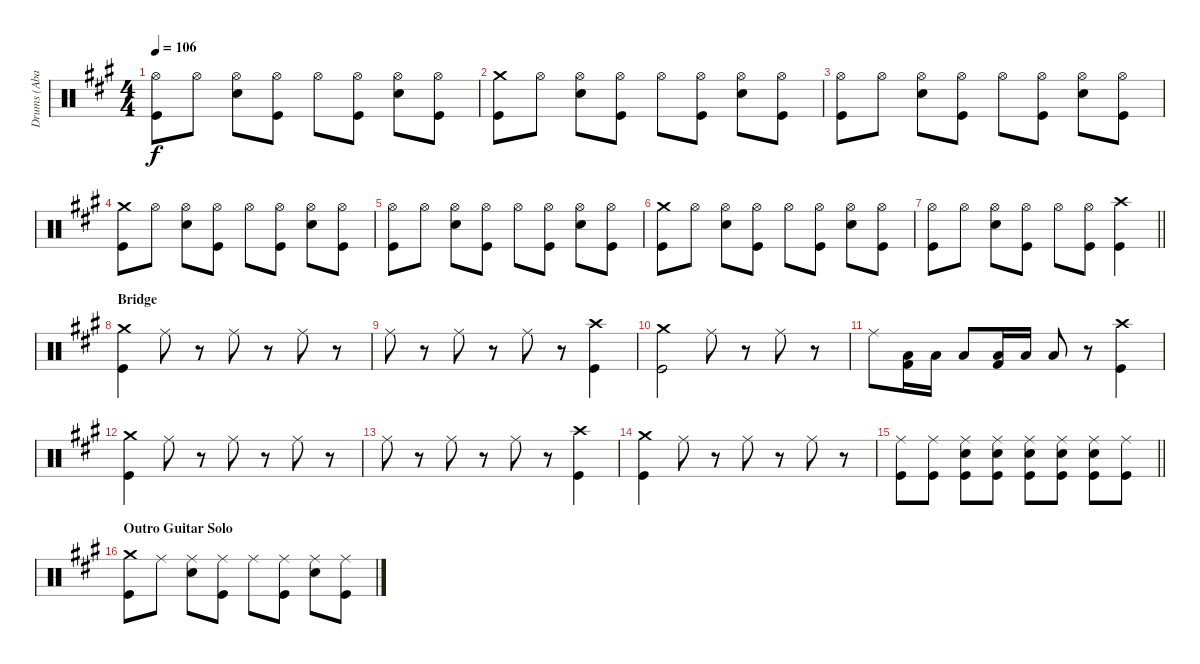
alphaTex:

\track ("Drums (Abaddon)" "Drums (Aba") {instrument percussion}
\staff {score}
\articulation defaults
\ts (4 4)
\tempo 106
\clef neutral
\ks f#minor
("Hi-Hat (open)" "Kick (hit)").8{dy f} "Hi-Hat (open)".8 ("Hi-Hat (open)" "Electric Snare (hit)").8 ("Hi-Hat (open)" "Kick (hit)").8 "Hi-Hat (open)".8 ("Hi-Hat (open)" "Kick (hit)").8 ("Hi-Hat (open)" "Electric Snare (hit)").8 ("Hi-Hat (open)" "Kick (hit)").8 |
("Crash medium (hit)" "Kick (hit)").8 "Hi-Hat (open)".8 ("Hi-Hat (open)" "Electric Snare (hit)").8 ("Hi-Hat (open)" "Kick (hit)").8 "Hi-Hat (open)".8 ("Hi-Hat (open)" "Kick (hit)").8 ("Hi-Hat (open)" "Electric Snare (hit)").8 ("Hi-Hat (open)" "Kick (hit)").8 |
("Hi-Hat (open)" "Kick (hit)").8 "Hi-Hat (open)".8 ("Hi-Hat (open)" "Electric Snare (hit)").8 ("Hi-Hat (open)" "Kick (hit)").8 "Hi-Hat (open)".8 ("Hi-Hat (open)" "Kick (hit)").8 ("Hi-Hat (open)" "Electric Snare (hit)").8 ("Hi-Hat (open)" "Kick (hit)").8 |
("Crash medium (hit)" "Kick (hit)").8 "Hi-Hat (open)".8 ("Hi-Hat (open)" "Electric Snare (hit)").8 ("Hi-Hat (open)" "Kick (hit)").8 "Hi-Hat (open)".8 ("Hi-Hat (open)" "Kick (hit)").8 ("Hi-Hat (open)" "Electric Snare (hit)").8 ("Hi-Hat (open)" "Kick (hit)").8 |
("Hi-Hat (open)" "Kick (hit)").8 "Hi-Hat (open)".8 ("Hi-Hat (open)" "Electric Snare (hit)").8 ("Hi-Hat (open)" "Kick (hit)").8 "Hi-Hat (open)".8 ("Hi-Hat (open)" "Kick (hit)").8 ("Hi-Hat (open)" "Electric Snare (hit)").8 ("Hi-Hat (open)" "Kick (hit)").8 |
("Crash medium (hit)" "Kick (hit)").8 "Hi-Hat (open)".8 ("Hi-Hat (open)" "Electric Snare (hit)").8 ("Hi-Hat (open)" "Kick (hit)").8 "Hi-Hat (open)".8 ("Hi-Hat (open)" "Kick (hit)").8 ("Hi-Hat (open)" "Electric Snare (hit)").8 ("Hi-Hat (open)" "Kick (hit)").8 |
\barLineRight lightlight
("Hi-Hat (open)" "Kick (hit)").8 "Hi-Hat (open)".8 ("Hi-Hat (open)" "Electric Snare (hit)").8 ("Hi-Hat (open)" "Kick (hit)").8 "Hi-Hat (open)".8 ("Hi-Hat (open)" "Kick (hit)").8 ("Crash high (hit)" "Kick (hit)").4 |
\section ("" "Bridge")
("Crash medium (hit)" "Kick (hit)").4 "Ride (middle)".8 r.8 "Ride (middle)".8 r.8 "Ride (middle)".8 r.8 |
"Ride (middle)".8 r.8 "Ride (middle)".8 r.8 "Ride (middle)".8 r.8 ("Crash high (hit)" "Kick (hit)").4 |
("Crash medium (hit)" "Kick (hit)").2 "Ride (middle)".8 r.8 "Ride (middle)".8 r.8 |
"Ride (middle)".8 ("Low Tom (hit)" "Kick (hit) 2").16 "Low Tom (hit)".16 "Low Tom (hit)".8 ("Low Floor Tom (hit)" "Kick (hit) 2").16 "Low Floor Tom (hit)".16 "Low Floor Tom (hit)".8 r.8 ("Crash high (hit)" "Kick (hit)").4 |
("Crash medium (hit)" "Kick (hit)").4 "Ride (middle)".8 r.8 "Ride (middle)".8 r.8 "Ride (middle)".8 r.8 |
"Ride (middle)".8 r.8 "Ride (middle)".8 r.8 "Ride (middle)".8 r.8 ("Crash high (hit)" "Kick (hit)").4 |
("Crash medium (hit)" "Kick (hit)").4 "Ride (middle)".8 r.8 "Ride (middle)".8 r.8 "Ride (middle)".8 r.8 |
\barLineRight lightlight
("Ride (middle)" "Kick (hit)").8 ("Ride (middle)" "Kick (hit)").8 ("Ride (middle)" "Electric Snare (hit)" "Kick (hit)").8 ("Ride (middle)" "Electric Snare (hit)" "Kick (hit)").8 ("Ride (middle)" "Electric Snare (hit)" "Kick (hit)").8 ("Ride (middle)" "Electric Snare (hit)" "Kick (hit)").8 ("Ride (middle)" "Electric Snare (hit)" "Kick (hit)").8 ("Ride (middle)" "Kick (hit)").8 |
\section ("" "Outro Guitar Solo")
("Crash medium (hit)" "Kick (hit)").8 "Ride (middle)".8 ("Ride (middle)" "Electric Snare (hit)").8 ("Ride (middle)" "Kick (hit)").8 "Ride (middle)".8 ("Ride (middle)" "Kick (hit)").8 ("Ride (middle)" "Electric Snare (hit)").8 ("Ride (middle)" "Kick (hit)").8
